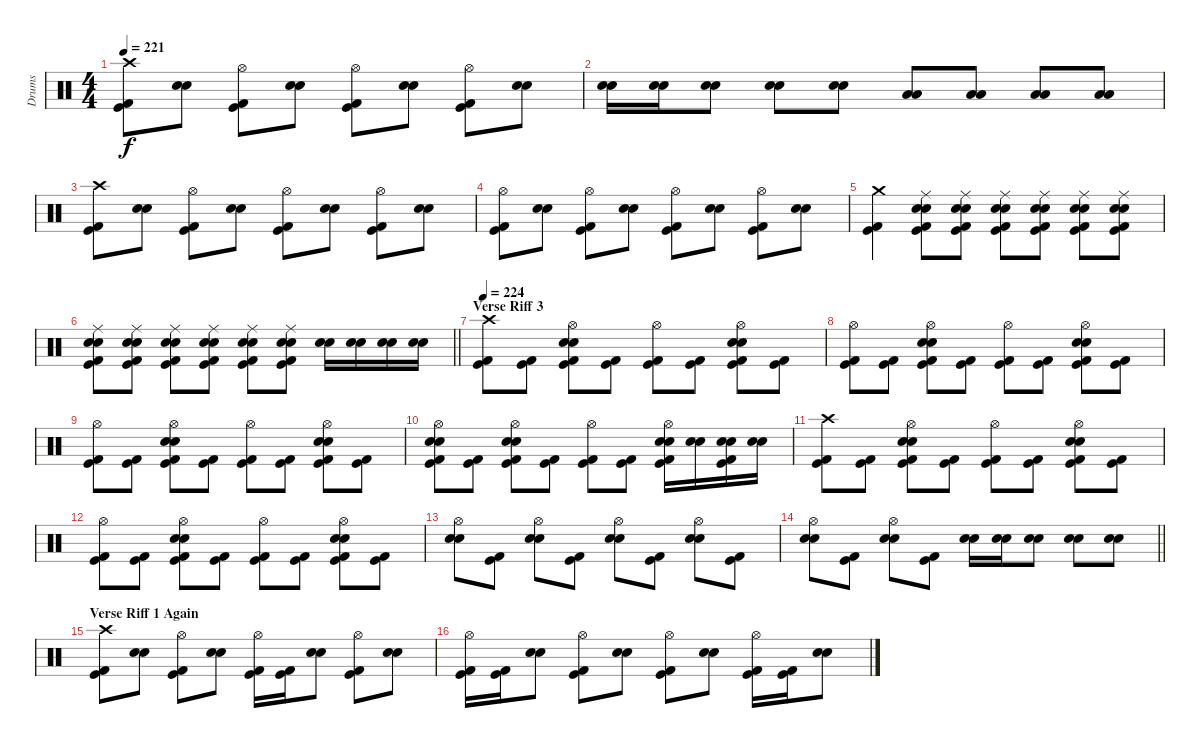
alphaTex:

\track ("Drums" "Drums") {instrument percussion}
\staff {score}
\articulation defaults
\ts (4 4)
\tempo 221
\clef neutral
\ks c
("Crash high (hit)" "Kick (hit) 2" "Kick (hit)").8{dy f} ("Electric Snare (hit)" "Electric Snare (hit)").8 ("Hi-Hat (open)" "Kick (hit) 2" "Kick (hit)").8 ("Electric Snare (hit)" "Electric Snare (hit)").8 ("Hi-Hat (open)" "Kick (hit) 2" "Kick (hit)").8 ("Electric Snare (hit)" "Electric Snare (hit)").8 ("Hi-Hat (open)" "Kick (hit) 2" "Kick (hit)").8 ("Electric Snare (hit)" "Electric Snare (hit)").8 |
("Electric Snare (hit)" "Electric Snare (hit)").16 ("Electric Snare (hit)" "Electric Snare (hit)").16 ("Electric Snare (hit)" "Electric Snare (hit)").8 ("Electric Snare (hit)" "Electric Snare (hit)").8 ("Electric Snare (hit)" "Electric Snare (hit)").8 ("Low Tom (hit)" "Low Tom (hit)").8 ("Low Tom (hit)" "Low Tom (hit)").8 ("Low Tom (hit)" "Low Tom (hit)").8 ("Low Tom (hit)" "Low Tom (hit)").8 |
("Crash high (hit)" "Kick (hit) 2" "Kick (hit)").8 ("Electric Snare (hit)" "Electric Snare (hit)").8 ("Hi-Hat (open)" "Kick (hit) 2" "Kick (hit)").8 ("Electric Snare (hit)" "Electric Snare (hit)").8 ("Hi-Hat (open)" "Kick (hit) 2" "Kick (hit)").8 ("Electric Snare (hit)" "Electric Snare (hit)").8 ("Hi-Hat (open)" "Kick (hit) 2" "Kick (hit)").8 ("Electric Snare (hit)" "Electric Snare (hit)").8 |
("Hi-Hat (open)" "Kick (hit) 2" "Kick (hit)").8 ("Electric Snare (hit)" "Electric Snare (hit)").8 ("Hi-Hat (open)" "Kick (hit) 2" "Kick (hit)").8 ("Electric Snare (hit)" "Electric Snare (hit)").8 ("Hi-Hat (open)" "Kick (hit) 2" "Kick (hit)").8 ("Electric Snare (hit)" "Electric Snare (hit)").8 ("Hi-Hat (open)" "Kick (hit) 2" "Kick (hit)").8 ("Electric Snare (hit)" "Electric Snare (hit)").8 |
("Crash medium (hit)" "Kick (hit) 2" "Kick (hit)").4 ("Ride (middle)" "Electric Snare (hit)" "Electric Snare (hit)" "Kick (hit) 2" "Kick (hit)").8 ("Ride (middle)" "Electric Snare (hit)" "Electric Snare (hit)" "Kick (hit) 2" "Kick (hit)").8 ("Ride (middle)" "Electric Snare (hit)" "Electric Snare (hit)" "Kick (hit) 2" "Kick (hit)").8 ("Ride (middle)" "Electric Snare (hit)" "Electric Snare (hit)" "Kick (hit) 2" "Kick (hit)").8 ("Ride (middle)" "Electric Snare (hit)" "Electric Snare (hit)" "Kick (hit) 2" "Kick (hit)").8 ("Ride (middle)" "Electric Snare (hit)" "Electric Snare (hit)" "Kick (hit) 2" "Kick (hit)").8 |
\barLineRight lightlight
("Ride (middle)" "Electric Snare (hit)" "Electric Snare (hit)" "Kick (hit) 2" "Kick (hit)").8 ("Ride (middle)" "Electric Snare (hit)" "Electric Snare (hit)" "Kick (hit) 2" "Kick (hit)").8 ("Ride (middle)" "Electric Snare (hit)" "Electric Snare (hit)" "Kick (hit) 2" "Kick (hit)").8 ("Ride (middle)" "Electric Snare (hit)" "Electric Snare (hit)" "Kick (hit) 2" "Kick (hit)").8 ("Ride (middle)" "Electric Snare (hit)" "Electric Snare (hit)" "Kick (hit) 2" "Kick (hit)").8 ("Ride (middle)" "Electric Snare (hit)" "Electric Snare (hit)" "Kick (hit) 2" "Kick (hit)").8 ("Electric Snare (hit)" "Electric Snare (hit)").16 ("Electric Snare (hit)" "Electric Snare (hit)").16 ("Electric Snare (hit)" "Electric Snare (hit)").16 ("Electric Snare (hit)" "Electric Snare (hit)").16 |
\section ("" "Verse Riff 3")
\tempo 224
("Crash high (hit)" "Kick (hit) 2" "Kick (hit)").8 ("Kick (hit) 2" "Kick (hit)").8 ("Hi-Hat (open)" "Electric Snare (hit)" "Electric Snare (hit)" "Kick (hit) 2" "Kick (hit)").8 ("Kick (hit) 2" "Kick (hit)").8 ("Hi-Hat (open)" "Kick (hit) 2" "Kick (hit)").8 ("Kick (hit) 2" "Kick (hit)").8 ("Hi-Hat (open)" "Electric Snare (hit)" "Electric Snare (hit)" "Kick (hit) 2" "Kick (hit)").8 ("Kick (hit) 2" "Kick (hit)").8 |
("Hi-Hat (open)" "Kick (hit) 2" "Kick (hit)").8 ("Kick (hit) 2" "Kick (hit)").8 ("Hi-Hat (open)" "Electric Snare (hit)" "Electric Snare (hit)" "Kick (hit) 2" "Kick (hit)").8 ("Kick (hit) 2" "Kick (hit)").8 ("Hi-Hat (open)" "Kick (hit) 2" "Kick (hit)").8 ("Kick (hit) 2" "Kick (hit)").8 ("Hi-Hat (open)" "Electric Snare (hit)" "Electric Snare (hit)" "Kick (hit) 2" "Kick (hit)").8 ("Kick (hit) 2" "Kick (hit)").8 |
("Hi-Hat (open)" "Kick (hit) 2" "Kick (hit)").8 ("Kick (hit) 2" "Kick (hit)").8 ("Hi-Hat (open)" "Electric Snare (hit)" "Electric Snare (hit)" "Kick (hit) 2" "Kick (hit)").8 ("Kick (hit) 2" "Kick (hit)").8 ("Hi-Hat (open)" "Kick (hit) 2" "Kick (hit)").8 ("Kick (hit) 2" "Kick (hit)").8 ("Hi-Hat (open)" "Electric Snare (hit)" "Electric Snare (hit)" "Kick (hit) 2" "Kick (hit)").8 ("Kick (hit) 2" "Kick (hit)").8 |
("Hi-Hat (open)" "Electric Snare (hit)" "Electric Snare (hit)" "Kick (hit) 2" "Kick (hit)").8 ("Kick (hit) 2" "Kick (hit)").8 ("Hi-Hat (open)" "Electric Snare (hit)" "Electric Snare (hit)" "Kick (hit) 2" "Kick (hit)").8 ("Kick (hit) 2" "Kick (hit)").8 ("Hi-Hat (open)" "Kick (hit) 2" "Kick (hit)").8 ("Kick (hit) 2" "Kick (hit)").8 ("Hi-Hat (open)" "Electric Snare (hit)" "Electric Snare (hit)" "Kick (hit) 2" "Kick (hit)").16 ("Electric Snare (hit)" "Electric Snare (hit)").16 ("Electric Snare (hit)" "Electric Snare (hit)" "Kick (hit) 2" "Kick (hit)").16 ("Electric Snare (hit)" "Electric Snare (hit)").16 |
("Crash high (hit)" "Kick (hit) 2" "Kick (hit)").8 ("Kick (hit) 2" "Kick (hit)").8 ("Hi-Hat (open)" "Electric Snare (hit)" "Electric Snare (hit)" "Kick (hit) 2" "Kick (hit)").8 ("Kick (hit) 2" "Kick (hit)").8 ("Hi-Hat (open)" "Kick (hit) 2" "Kick (hit)").8 ("Kick (hit) 2" "Kick (hit)").8 ("Hi-Hat (open)" "Electric Snare (hit)" "Electric Snare (hit)" "Kick (hit) 2" "Kick (hit)").8 ("Kick (hit) 2" "Kick (hit)").8 |
("Hi-Hat (open)" "Kick (hit) 2" "Kick (hit)").8 ("Kick (hit) 2" "Kick (hit)").8 ("Hi-Hat (open)" "Electric Snare (hit)" "Electric Snare (hit)" "Kick (hit) 2" "Kick (hit)").8 ("Kick (hit) 2" "Kick (hit)").8 ("Hi-Hat (open)" "Kick (hit) 2" "Kick (hit)").8 ("Kick (hit) 2" "Kick (hit)").8 ("Hi-Hat (open)" "Electric Snare (hit)" "Electric Snare (hit)" "Kick (hit) 2" "Kick (hit)").8 ("Kick (hit) 2" "Kick (hit)").8 |
("Hi-Hat (open)" "Electric Snare (hit)" "Electric Snare (hit)").8 ("Kick (hit) 2" "Kick (hit)").8 ("Hi-Hat (open)" "Electric Snare (hit)" "Electric Snare (hit)").8 ("Kick (hit) 2" "Kick (hit)").8 ("Hi-Hat (open)" "Electric Snare (hit)" "Electric Snare (hit)").8 ("Kick (hit) 2" "Kick (hit)").8 ("Hi-Hat (open)" "Electric Snare (hit)" "Electric Snare (hit)").8 ("Kick (hit) 2" "Kick (hit)").8 |
\barLineRight lightlight
("Hi-Hat (open)" "Electric Snare (hit)" "Electric Snare (hit)").8 ("Kick (hit) 2" "Kick (hit)").8 ("Hi-Hat (open)" "Electric Snare (hit)" "Electric Snare (hit)").8 ("Kick (hit) 2" "Kick (hit)").8 ("Electric Snare (hit)" "Electric Snare (hit)").16 ("Electric Snare (hit)" "Electric Snare (hit)").16 ("Electric Snare (hit)" "Electric Snare (hit)").8 ("Electric Snare (hit)" "Electric Snare (hit)").8 ("Electric Snare (hit)" "Electric Snare (hit)").8 |
\section ("" "Verse Riff 1 Again")
("Crash high (hit)" "Kick (hit) 2" "Kick (hit)").8 ("Electric Snare (hit)" "Electric Snare (hit)").8 ("Hi-Hat (open)" "Kick (hit) 2" "Kick (hit)").8 ("Electric Snare (hit)" "Electric Snare (hit)").8 ("Hi-Hat (open)" "Kick (hit) 2" "Kick (hit)").16 ("Kick (hit) 2" "Kick (hit)").16 ("Electric Snare (hit)" "Electric Snare (hit)").8 ("Hi-Hat (open)" "Kick (hit) 2" "Kick (hit)").8 ("Electric Snare (hit)" "Electric Snare (hit)").8 |
("Hi-Hat (open)" "Kick (hit) 2" "Kick (hit)").16 ("Kick (hit) 2" "Kick (hit)").16 ("Electric Snare (hit)" "Electric Snare (hit)").8 ("Hi-Hat (open)" "Kick (hit) 2" "Kick (hit)").8 ("Electric Snare (hit)" "Electric Snare (hit)").8 ("Hi-Hat (open)" "Kick (hit) 2" "Kick (hit)").8 ("Electric Snare (hit)" "Electric Snare (hit)").8 ("Hi-Hat (open)" "Kick (hit) 2" "Kick (hit)").16 ("Kick (hit) 2" "Kick (hit)").16 ("Electric Snare (hit)" "Electric Snare (hit)").8
